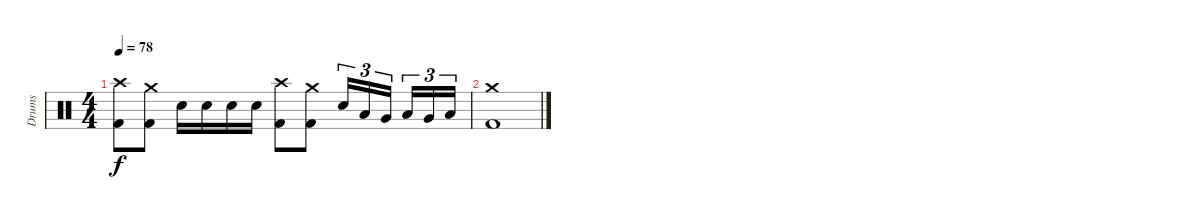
\track ("Drums" "Drums") {instrument percussion}
\staff {score}
\articulation defaults
\ts (4 4)
\tempo 78
\clef neutral
\ks c
("Crash high (hit)" "Kick (hit) 2").8{dy f} ("Crash medium (hit)" "Kick (hit) 2").8 "Electric Snare (hit)".16 "Electric Snare (hit)".16 "Electric Snare (hit)".16 "Electric Snare (hit)".16 ("Crash high (hit)" "Kick (hit) 2").8 ("Crash medium (hit)" "Kick (hit) 2").8 "Electric Snare (hit)".16{tu (3 2)} "Low Tom (hit)".16{tu (3 2)} "Very Low Tom (hit)".16{tu (3 2) beam splitsecondary} "Low Tom (hit)".16{tu (3 2)} "Very Low Tom (hit)".16{tu (3 2)} "Low Floor Tom (hit)".16{tu (3 2)} |
("Crash medium (hit)" "Kick (hit) 2").1
